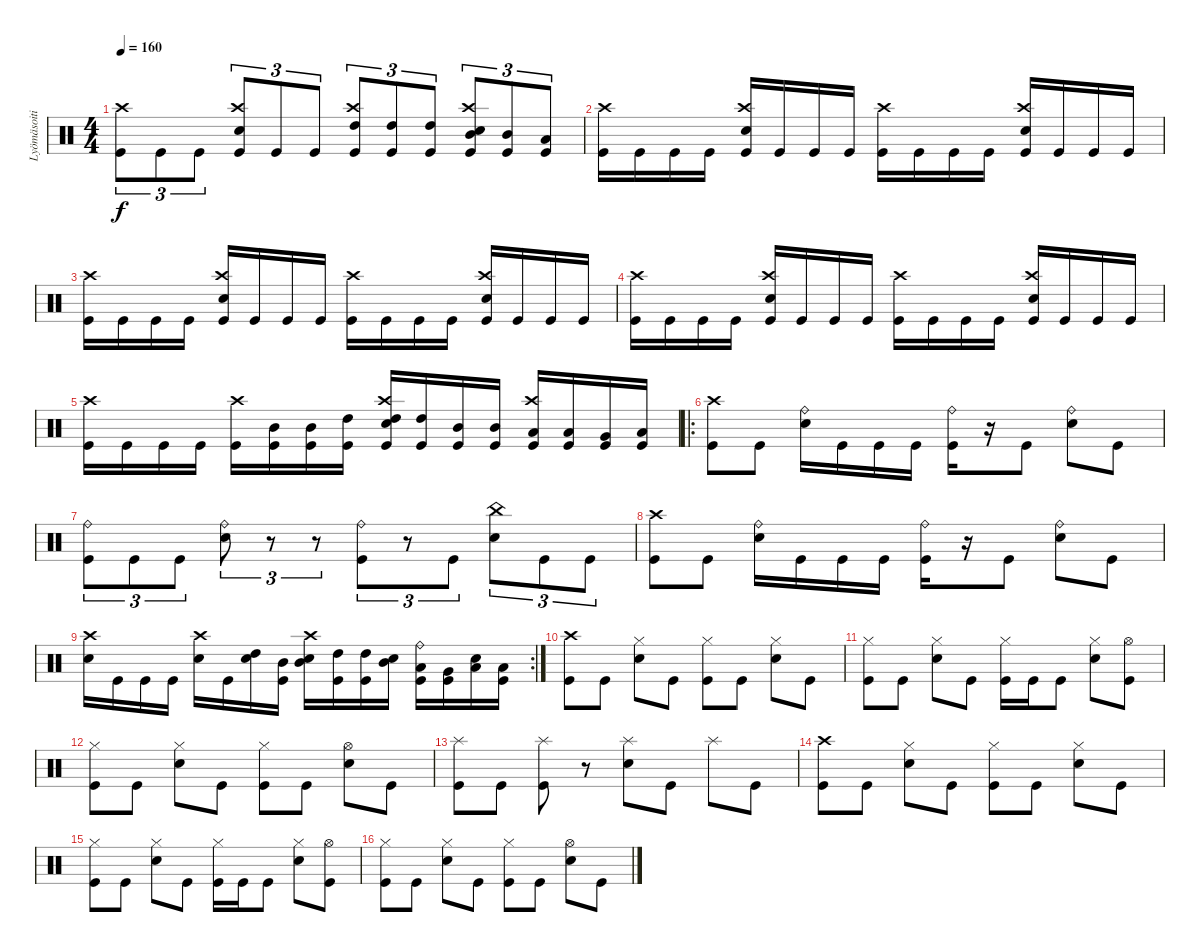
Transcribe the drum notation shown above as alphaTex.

\track ("Lyömäsoitin" "Lyömäsoiti") {instrument percussion}
\staff {score}
\articulation defaults
\ts (4 4)
\tempo 160
\clef neutral
\ks c
("Kick (hit)" "Crash high (hit)").8{tu (3 2) dy f} "Kick (hit)".8{tu (3 2)} "Kick (hit)".8{tu (3 2)} ("Kick (hit)" "Snare (hit) 2" "Crash high (hit)").8{tu (3 2)} "Kick (hit)".8{tu (3 2)} "Kick (hit)".8{tu (3 2)} ("Kick (hit)" "High Tom (hit)" "Crash high (hit)").8{tu (3 2)} ("Kick (hit)" "High Tom (hit)").8{tu (3 2)} ("Kick (hit)" "High Tom (hit)").8{tu (3 2)} ("Kick (hit)" "Snare (hit) 2" "Crash high (hit)" "Mid Tom (hit)").8{tu (3 2)} ("Kick (hit)" "Mid Tom (hit)").8{tu (3 2)} ("Kick (hit)" "Low Floor Tom (hit)").8{tu (3 2)} |
("Crash high (hit)" "Kick (hit)").16 "Kick (hit)".16 "Kick (hit)".16 "Kick (hit)".16 ("Crash high (hit)" "Snare (hit) 2" "Kick (hit)").16 "Kick (hit)".16 "Kick (hit)".16 "Kick (hit)".16 ("Crash high (hit)" "Kick (hit)").16 "Kick (hit)".16 "Kick (hit)".16 "Kick (hit)".16 ("Crash high (hit)" "Snare (hit) 2" "Kick (hit)").16 "Kick (hit)".16 "Kick (hit)".16 "Kick (hit)".16 |
("Crash high (hit)" "Kick (hit)").16 "Kick (hit)".16 "Kick (hit)".16 "Kick (hit)".16 ("Crash high (hit)" "Snare (hit) 2" "Kick (hit)").16 "Kick (hit)".16 "Kick (hit)".16 "Kick (hit)".16 ("Crash high (hit)" "Kick (hit)").16 "Kick (hit)".16 "Kick (hit)".16 "Kick (hit)".16 ("Crash high (hit)" "Snare (hit) 2" "Kick (hit)").16 "Kick (hit)".16 "Kick (hit)".16 "Kick (hit)".16 |
("Crash high (hit)" "Kick (hit)").16 "Kick (hit)".16 "Kick (hit)".16 "Kick (hit)".16 ("Crash high (hit)" "Snare (hit) 2" "Kick (hit)").16 "Kick (hit)".16 "Kick (hit)".16 "Kick (hit)".16 ("Crash high (hit)" "Kick (hit)").16 "Kick (hit)".16 "Kick (hit)".16 "Kick (hit)".16 ("Crash high (hit)" "Snare (hit) 2" "Kick (hit)").16 "Kick (hit)".16 "Kick (hit)".16 "Kick (hit)".16 |
("Crash high (hit)" "Kick (hit)").16 "Kick (hit)".16 "Kick (hit)".16 "Kick (hit)".16 ("Crash high (hit)" "Kick (hit)").16 ("Kick (hit)" "Mid Tom (hit)").16 ("Kick (hit)" "Mid Tom (hit)").16 ("Kick (hit)" "High Tom (hit)").16 ("Crash high (hit)" "Snare (hit) 2" "Kick (hit)" "High Tom (hit)").16 ("Kick (hit)" "High Tom (hit)").16 ("Kick (hit)" "Mid Tom (hit)").16 ("Kick (hit)" "Mid Tom (hit)").16 ("Crash high (hit)" "Kick (hit)" "Low Tom (hit)").16 ("Kick (hit)" "Low Tom (hit)").16 ("Kick (hit)" "Very Low Tom (hit)").16 ("Kick (hit)" "Low Floor Tom (hit)").16 |
\ro
("Crash high (hit)" "Kick (hit)").8 "Kick (hit)".8 ("Ride (bell)" "Snare (hit) 2").16 "Kick (hit)".16 "Kick (hit)".16 "Kick (hit)".16 ("Ride (bell)" "Kick (hit)").16 r.16 "Kick (hit)".8 ("Ride (bell)" "Snare (hit) 2").8 "Kick (hit)".8 |
("Ride (bell)" "Kick (hit)").8{tu (3 2)} "Kick (hit)".8{tu (3 2)} "Kick (hit)".8{tu (3 2)} ("Ride (bell)" "Snare (hit) 2").8{tu (3 2)} r.8{tu (3 2)} r.8{tu (3 2)} ("Ride (bell)" "Kick (hit)").8{tu (3 2)} r.8{tu (3 2)} "Kick (hit)".8{tu (3 2)} ("China (hit)" "Snare (hit) 2").8{tu (3 2)} "Kick (hit)".8{tu (3 2)} "Kick (hit)".8{tu (3 2)} |
("Crash high (hit)" "Kick (hit)").8 "Kick (hit)".8 ("Ride (bell)" "Snare (hit) 2").16 "Kick (hit)".16 "Kick (hit)".16 "Kick (hit)".16 ("Ride (bell)" "Kick (hit)").16 r.16 "Kick (hit)".8 ("Ride (bell)" "Snare (hit) 2").8 "Kick (hit)".8 |
\rc 2
("Crash high (hit)" "Snare (hit) 2").16 "Kick (hit)".16 "Kick (hit)".16 "Kick (hit)".16 ("Crash high (hit)" "Snare (hit) 2").16 "Kick (hit)".16 ("Snare (hit) 2" "High Tom (hit)").16 ("Kick (hit)" "Mid Tom (hit)").16 ("Crash high (hit)" "Snare (hit) 2" "Mid Tom (hit)").16 ("Kick (hit)" "High Tom (hit)").16 ("Kick (hit)" "High Tom (hit)").16 ("Snare (hit) 2" "Mid Tom (hit)").16 ("Ride (bell)" "Kick (hit)" "Low Tom (hit)").16 ("Kick (hit)" "Very Low Tom (hit)").16 ("Snare (hit) 2" "Low Floor Tom (hit)").16 ("Kick (hit)" "Low Floor Tom (hit)").16 |
("Crash high (hit)" "Kick (hit)").8 "Kick (hit)".8 ("Hi-Hat (closed)" "Snare (hit) 2").8 "Kick (hit)".8 ("Hi-Hat (closed)" "Kick (hit)").8 "Kick (hit)".8 ("Hi-Hat (closed)" "Snare (hit) 2").8 "Kick (hit)".8 |
("Hi-Hat (closed)" "Kick (hit)").8 "Kick (hit)".8 ("Hi-Hat (closed)" "Snare (hit) 2").8 "Kick (hit)".8 ("Hi-Hat (closed)" "Kick (hit)").16 "Kick (hit)".16 "Kick (hit)".8 ("Hi-Hat (closed)" "Snare (hit) 2").8 ("Hi-Hat (open)" "Kick (hit)").8 |
("Hi-Hat (closed)" "Kick (hit)").8 "Kick (hit)".8 ("Hi-Hat (closed)" "Snare (hit) 2").8 "Kick (hit)".8 ("Hi-Hat (closed)" "Kick (hit)").8 "Kick (hit)".8 ("Hi-Hat (open)" "Snare (hit) 2").8 "Kick (hit)".8 |
("Splash (hit)" "Kick (hit)").8 "Kick (hit)".8 ("Splash (hit)" "Kick (hit)").8 r.8 ("Splash (hit)" "Snare (hit) 2").8 "Kick (hit)".8 "Splash (hit)".8 "Kick (hit)".8 |
("Crash high (hit)" "Kick (hit)").8 "Kick (hit)".8 ("Hi-Hat (closed)" "Snare (hit) 2").8 "Kick (hit)".8 ("Hi-Hat (closed)" "Kick (hit)").8 "Kick (hit)".8 ("Hi-Hat (closed)" "Snare (hit) 2").8 "Kick (hit)".8 |
("Hi-Hat (closed)" "Kick (hit)").8 "Kick (hit)".8 ("Hi-Hat (closed)" "Snare (hit) 2").8 "Kick (hit)".8 ("Hi-Hat (closed)" "Kick (hit)").16 "Kick (hit)".16 "Kick (hit)".8 ("Hi-Hat (closed)" "Snare (hit) 2").8 ("Hi-Hat (open)" "Kick (hit)").8 |
("Hi-Hat (closed)" "Kick (hit)").8 "Kick (hit)".8 ("Hi-Hat (closed)" "Snare (hit) 2").8 "Kick (hit)".8 ("Hi-Hat (closed)" "Kick (hit)").8 "Kick (hit)".8 ("Hi-Hat (open)" "Snare (hit) 2").8 "Kick (hit)".8
